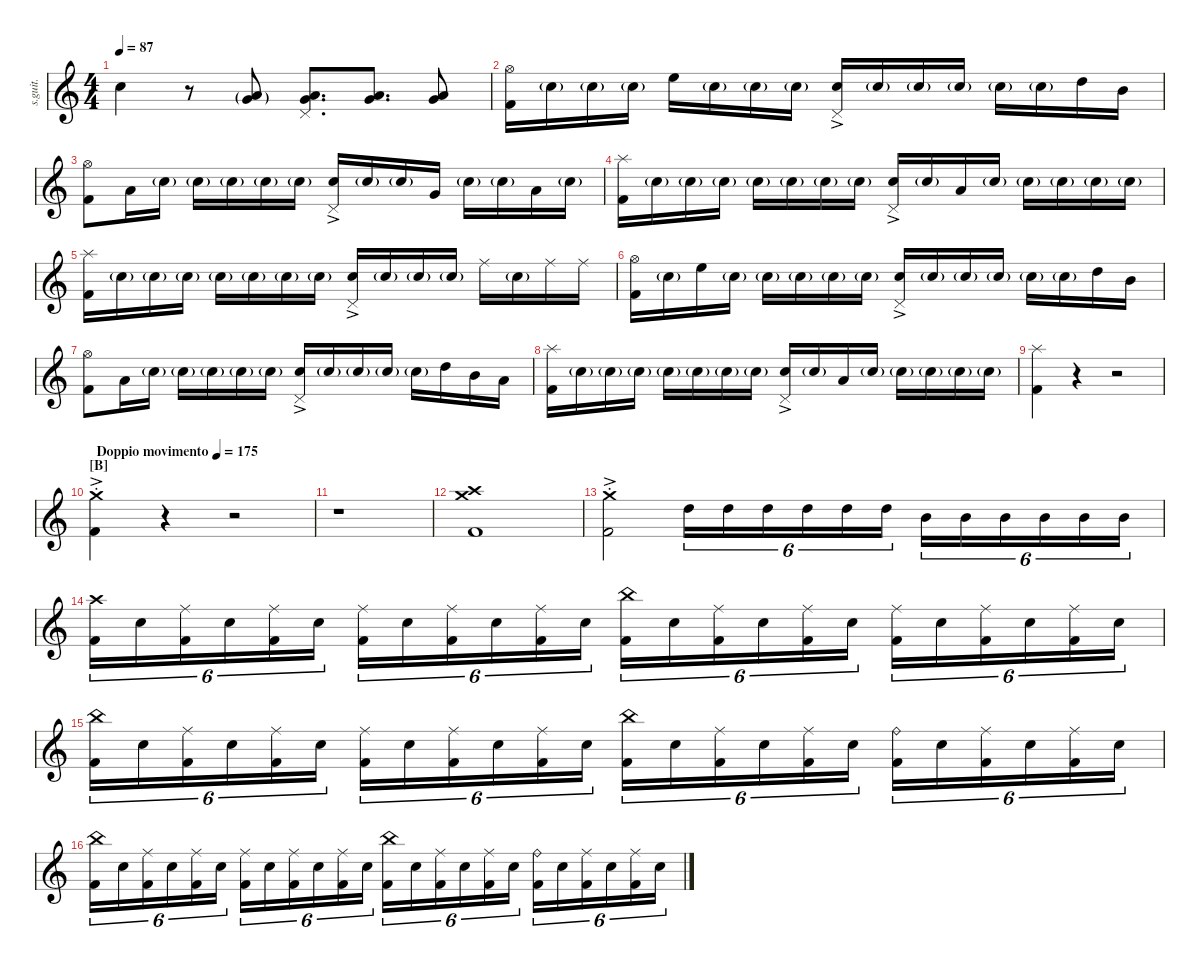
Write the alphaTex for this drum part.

\defaultSystemsLayout 4
\hideDynamics
\bracketExtendMode nobrackets
\track ("" "s.guit.") {instrument percussion}
\staff {score}
\articulation defaults
\ts (4 4)
\tempo 87
\clef g2
\ks c "Snare (hit) 2".4{dy f}
r.8 ("Low Tom (hit)"{g} "Very Low Tom (hit)"{g}).8 ("Low Tom (hit)" "Very Low Tom (hit)" "Pedal Hi-Hat (hit)").8{d} ("Low Tom (hit)" "Very Low Tom (hit)").8{d} ("Low Tom (hit)" "Very Low Tom (hit)").8 |
("Hi-Hat (open)" "Kick (hit) 2").16 "Snare (hit) 2"{g}.16 "Snare (hit) 2"{g}.16 "Snare (hit) 2"{g}.16 "High Floor Tom (hit)".16 "Snare (hit) 2"{g}.16 "Snare (hit) 2"{g}.16 "Snare (hit) 2"{g}.16 ("Snare (hit) 2"{ac} "Pedal Hi-Hat (hit)").16 "Snare (hit) 2"{g}.16 "Snare (hit) 2"{g}.16 "Snare (hit) 2"{g}.16 "Snare (hit) 2"{g}.16 "Snare (hit) 2"{g}.16 "High Tom (hit)".16 "Mid Tom (hit)".16 |
("Hi-Hat (open)" "Kick (hit) 2").8 "Low Tom (hit)".16 "Snare (hit) 2"{g}.16 "Snare (hit) 2"{g}.16 "Snare (hit) 2"{g}.16 "Snare (hit) 2"{g}.16 "Snare (hit) 2"{g}.16 ("Snare (hit) 2"{ac} "Pedal Hi-Hat (hit)").16 "Snare (hit) 2"{g}.16 "Snare (hit) 2"{g}.16 "Very Low Tom (hit)".16 "Snare (hit) 2"{g}.16 "Snare (hit) 2"{g}.16 "Low Tom (hit)".16 "Snare (hit) 2"{g}.16 |
("Splash (hit)" "Kick (hit) 2").16 "Snare (hit) 2"{g}.16 "Snare (hit) 2"{g}.16 "Snare (hit) 2"{g}.16 "Snare (hit) 2"{g}.16 "Snare (hit) 2"{g}.16 "Snare (hit) 2"{g}.16 "Snare (hit) 2"{g}.16 ("Snare (hit) 2"{ac} "Pedal Hi-Hat (hit)").16 "Snare (hit) 2"{g}.16 "Low Tom (hit)".16 "Snare (hit) 2"{g}.16 "Snare (hit) 2"{g}.16 "Snare (hit) 2"{g}.16 "Snare (hit) 2"{g}.16 "Snare (hit) 2"{g}.16 |
("Splash (hit)" "Kick (hit) 2").16 "Snare (hit) 2"{g}.16 "Snare (hit) 2"{g}.16 "Snare (hit) 2"{g}.16 "Snare (hit) 2"{g}.16 "Snare (hit) 2"{g}.16 "Snare (hit) 2"{g}.16 "Snare (hit) 2"{g}.16 ("Snare (hit) 2"{ac} "Pedal Hi-Hat (hit)").16 "Snare (hit) 2"{g}.16 "Snare (hit) 2"{g}.16 "Snare (hit) 2"{g}.16 "Ride (middle)".16 "Snare (hit) 2"{g}.16 "Ride (middle)".16 "Ride (middle)".16 |
("Hi-Hat (open)" "Kick (hit) 2").16 "Snare (hit) 2"{g}.16 "High Floor Tom (hit)".16 "Snare (hit) 2"{g}.16 "Snare (hit) 2"{g}.16 "Snare (hit) 2"{g}.16 "Snare (hit) 2"{g}.16 "Snare (hit) 2"{g}.16 ("Snare (hit) 2"{ac} "Pedal Hi-Hat (hit)").16 "Snare (hit) 2"{g}.16 "Snare (hit) 2"{g}.16 "Snare (hit) 2"{g}.16 "Snare (hit) 2"{g}.16 "Snare (hit) 2"{g}.16 "High Tom (hit)".16 "Mid Tom (hit)".16 |
("Hi-Hat (open)" "Kick (hit) 2").8 "Low Tom (hit)".16 "Snare (hit) 2"{g}.16 "Snare (hit) 2"{g}.16 "Snare (hit) 2"{g}.16 "Snare (hit) 2"{g}.16 "Snare (hit) 2"{g}.16 ("Snare (hit) 2"{ac} "Pedal Hi-Hat (hit)").16 "Snare (hit) 2"{g}.16 "Snare (hit) 2"{g}.16 "Snare (hit) 2"{g}.16 "Snare (hit) 2"{g}.16 "High Tom (hit)".16 "Mid Tom (hit)".16 "Low Tom (hit)".16 |
("Splash (hit)" "Kick (hit) 2").16 "Snare (hit) 2"{g}.16 "Snare (hit) 2"{g}.16 "Snare (hit) 2"{g}.16 "Snare (hit) 2"{g}.16 "Snare (hit) 2"{g}.16 "Snare (hit) 2"{g}.16 "Snare (hit) 2"{g}.16 ("Snare (hit) 2"{ac} "Pedal Hi-Hat (hit)").16 "Snare (hit) 2"{g}.16 "Low Tom (hit)".16 "Snare (hit) 2"{g}.16 "Snare (hit) 2"{g}.16 "Snare (hit) 2"{g}.16 "Snare (hit) 2"{g}.16 "Snare (hit) 2"{g}.16 |
("Splash (hit)" "Kick (hit) 2").4 r.4 r.2 |
\section ("B" "")
\tempo (175 "Doppio movimento")
("Crash medium (hit)"{ac st} "Kick (hit) 2").4{dy ff} r.4 r.2 |
r.1 |
("Crash medium (hit)" "Crash high (hit)" "Kick (hit) 2").1 |
("Crash medium (hit)"{ac st} "Kick (hit) 2").2 "High Tom (hit)".16{tu (6 4)} "High Tom (hit)".16{tu (6 4)} "High Tom (hit)".16{tu (6 4)} "High Tom (hit)".16{tu (6 4)} "High Tom (hit)".16{tu (6 4)} "High Tom (hit)".16{tu (6 4)} "Mid Tom (hit)".16{tu (6 4)} "Mid Tom (hit)".16{tu (6 4)} "Mid Tom (hit)".16{tu (6 4)} "Mid Tom (hit)".16{tu (6 4)} "Mid Tom (hit)".16{tu (6 4)} "Mid Tom (hit)".16{tu (6 4)} |
("Crash high (hit)" "Kick (hit) 2").16{tu (6 4)} "Snare (hit) 2".16{tu (6 4)} ("Ride (middle)" "Kick (hit) 2").16{tu (6 4)} "Snare (hit) 2".16{tu (6 4)} ("Ride (middle)" "Kick (hit) 2").16{tu (6 4)} "Snare (hit) 2".16{tu (6 4)} ("Ride (middle)" "Kick (hit) 2").16{tu (6 4)} "Snare (hit) 2".16{tu (6 4)} ("Ride (middle)" "Kick (hit) 2").16{tu (6 4)} "Snare (hit) 2".16{tu (6 4)} ("Ride (middle)" "Kick (hit) 2").16{tu (6 4)} "Snare (hit) 2".16{tu (6 4)} ("China (hit)" "Kick (hit) 2").16{tu (6 4)} "Snare (hit) 2".16{tu (6 4)} ("Ride (middle)" "Kick (hit) 2").16{tu (6 4)} "Snare (hit) 2".16{tu (6 4)} ("Ride (middle)" "Kick (hit) 2").16{tu (6 4)} "Snare (hit) 2".16{tu (6 4)} ("Ride (middle)" "Kick (hit) 2").16{tu (6 4)} "Snare (hit) 2".16{tu (6 4)} ("Ride (middle)" "Kick (hit) 2").16{tu (6 4)} "Snare (hit) 2".16{tu (6 4)} ("Ride (middle)" "Kick (hit) 2").16{tu (6 4)} "Snare (hit) 2".16{tu (6 4)} |
("China (hit)" "Kick (hit) 2").16{tu (6 4)} "Snare (hit) 2".16{tu (6 4)} ("Ride (middle)" "Kick (hit) 2").16{tu (6 4)} "Snare (hit) 2".16{tu (6 4)} ("Ride (middle)" "Kick (hit) 2").16{tu (6 4)} "Snare (hit) 2".16{tu (6 4)} ("Ride (middle)" "Kick (hit) 2").16{tu (6 4)} "Snare (hit) 2".16{tu (6 4)} ("Ride (middle)" "Kick (hit) 2").16{tu (6 4)} "Snare (hit) 2".16{tu (6 4)} ("Ride (middle)" "Kick (hit) 2").16{tu (6 4)} "Snare (hit) 2".16{tu (6 4)} ("China (hit)" "Kick (hit) 2").16{tu (6 4)} "Snare (hit) 2".16{tu (6 4)} ("Ride (middle)" "Kick (hit) 2").16{tu (6 4)} "Snare (hit) 2".16{tu (6 4)} ("Ride (middle)" "Kick (hit) 2").16{tu (6 4)} "Snare (hit) 2".16{tu (6 4)} ("Ride (bell)" "Kick (hit) 2").16{tu (6 4)} "Snare (hit) 2".16{tu (6 4)} ("Ride (middle)" "Kick (hit) 2").16{tu (6 4)} "Snare (hit) 2".16{tu (6 4)} ("Ride (middle)" "Kick (hit) 2").16{tu (6 4)} "Snare (hit) 2".16{tu (6 4)} |
("China (hit)" "Kick (hit) 2").16{tu (6 4)} "Snare (hit) 2".16{tu (6 4)} ("Ride (middle)" "Kick (hit) 2").16{tu (6 4)} "Snare (hit) 2".16{tu (6 4)} ("Ride (middle)" "Kick (hit) 2").16{tu (6 4)} "Snare (hit) 2".16{tu (6 4)} ("Ride (middle)" "Kick (hit) 2").16{tu (6 4)} "Snare (hit) 2".16{tu (6 4)} ("Ride (middle)" "Kick (hit) 2").16{tu (6 4)} "Snare (hit) 2".16{tu (6 4)} ("Ride (middle)" "Kick (hit) 2").16{tu (6 4)} "Snare (hit) 2".16{tu (6 4)} ("China (hit)" "Kick (hit) 2").16{tu (6 4)} "Snare (hit) 2".16{tu (6 4)} ("Ride (middle)" "Kick (hit) 2").16{tu (6 4)} "Snare (hit) 2".16{tu (6 4)} ("Ride (middle)" "Kick (hit) 2").16{tu (6 4)} "Snare (hit) 2".16{tu (6 4)} ("Ride (bell)" "Kick (hit) 2").16{tu (6 4)} "Snare (hit) 2".16{tu (6 4)} ("Ride (middle)" "Kick (hit) 2").16{tu (6 4)} "Snare (hit) 2".16{tu (6 4)} ("Ride (middle)" "Kick (hit) 2").16{tu (6 4)} "Snare (hit) 2".16{tu (6 4)}
